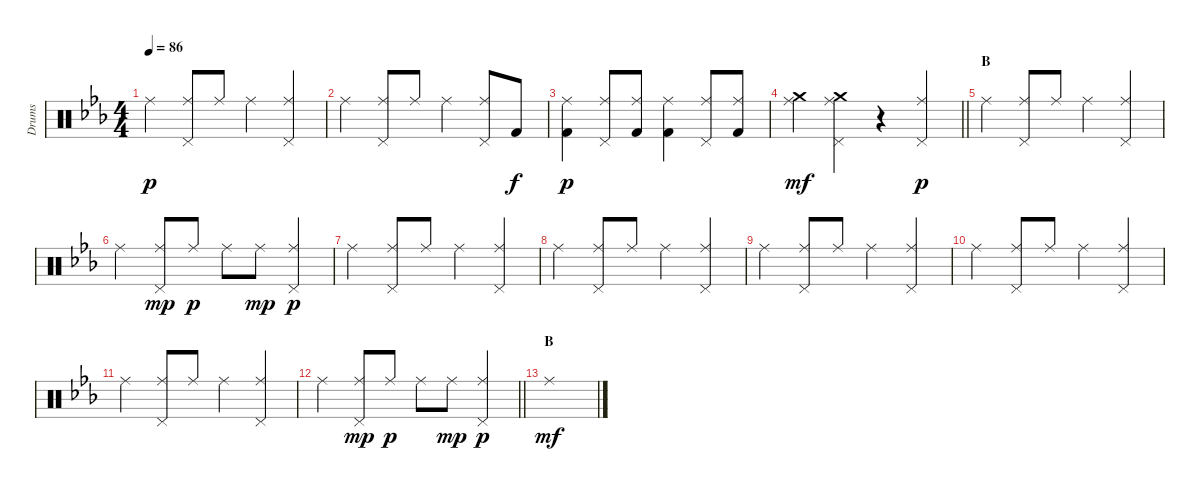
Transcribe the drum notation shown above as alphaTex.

\track ("Drums" "Drums") {instrument percussion}
\staff {score}
\articulation defaults
\ts (4 4)
\tempo 86
\clef neutral
\ks eb "Ride (middle)".4{dy p}
("Ride (middle)" "Pedal Hi-Hat (hit)").8 "Ride (middle)".8 "Ride (middle)".4 ("Ride (middle)" "Pedal Hi-Hat (hit)").4 |
"Ride (middle)".4 ("Ride (middle)" "Pedal Hi-Hat (hit)").8 "Ride (middle)".8 "Ride (middle)".4 ("Ride (middle)" "Pedal Hi-Hat (hit)").8 "Kick (hit) 2".8{dy f} |
("Ride (middle)" "Kick (hit) 2").4{dy p} ("Ride (middle)" "Pedal Hi-Hat (hit)").8 ("Ride (middle)" "Kick (hit) 2").8 ("Ride (middle)" "Kick (hit) 2").4 ("Ride (middle)" "Pedal Hi-Hat (hit)").8 ("Ride (middle)" "Kick (hit) 2").8 |
\barLineRight lightlight
("Crash medium (hit)" "Ride (middle)").4{dy mf} ("Crash medium (hit)" "Ride (middle)" "Pedal Hi-Hat (hit)").4 r.4 ("Ride (middle)" "Pedal Hi-Hat (hit)").4{dy p} |
\section ("" "B")
"Ride (middle)".4 ("Ride (middle)" "Pedal Hi-Hat (hit)").8 "Ride (middle)".8 "Ride (middle)".4 ("Ride (middle)" "Pedal Hi-Hat (hit)").4 |
"Ride (middle)".4 ("Ride (middle)" "Pedal Hi-Hat (hit)").8{dy mp} "Ride (middle)".8{dy p} "Ride (middle)".8 "Ride (middle)".8{dy mp} ("Ride (middle)" "Pedal Hi-Hat (hit)").4{dy p} |
"Ride (middle)".4 ("Ride (middle)" "Pedal Hi-Hat (hit)").8 "Ride (middle)".8 "Ride (middle)".4 ("Ride (middle)" "Pedal Hi-Hat (hit)").4 |
"Ride (middle)".4 ("Ride (middle)" "Pedal Hi-Hat (hit)").8 "Ride (middle)".8 "Ride (middle)".4 ("Ride (middle)" "Pedal Hi-Hat (hit)").4 |
"Ride (middle)".4 ("Ride (middle)" "Pedal Hi-Hat (hit)").8 "Ride (middle)".8 "Ride (middle)".4 ("Ride (middle)" "Pedal Hi-Hat (hit)").4 |
"Ride (middle)".4 ("Ride (middle)" "Pedal Hi-Hat (hit)").8 "Ride (middle)".8 "Ride (middle)".4 ("Ride (middle)" "Pedal Hi-Hat (hit)").4 |
"Ride (middle)".4 ("Ride (middle)" "Pedal Hi-Hat (hit)").8 "Ride (middle)".8 "Ride (middle)".4 ("Ride (middle)" "Pedal Hi-Hat (hit)").4 |
\barLineRight lightlight "Ride (middle)".4
("Ride (middle)" "Pedal Hi-Hat (hit)").8{dy mp} "Ride (middle)".8{dy p} "Ride (middle)".8 "Ride (middle)".8{dy mp} ("Ride (middle)" "Pedal Hi-Hat (hit)").4{dy p} |
\section ("" "B")
"Ride (middle)".1{dy mf}
